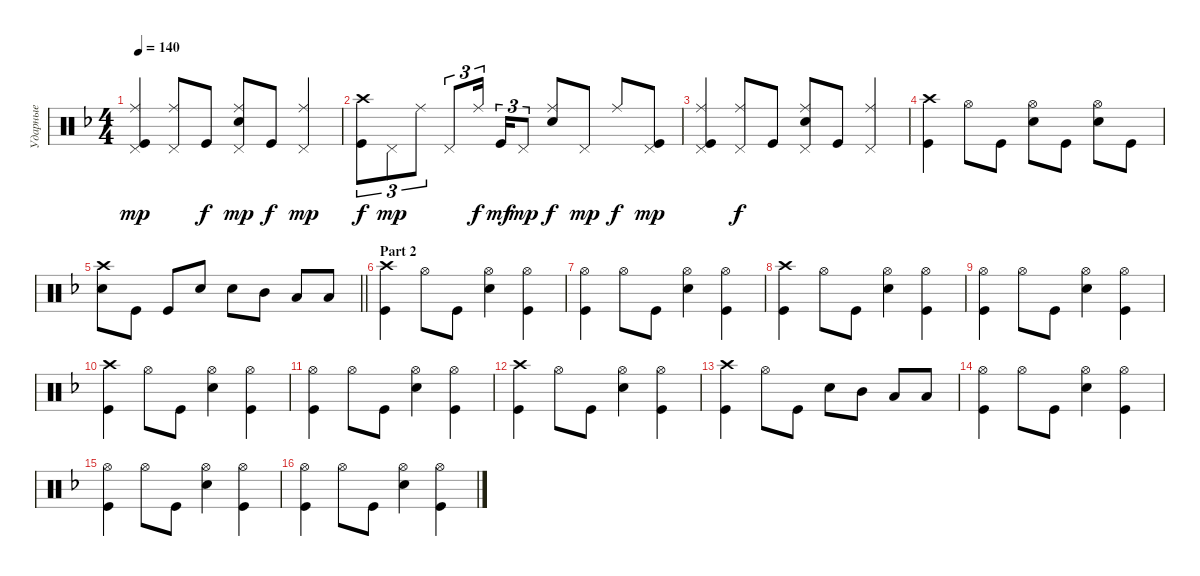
\track ("Ударные" "Ударные") {instrument percussion}
\staff {score}
\articulation defaults
\ts (4 4)
\tempo 140
\clef neutral
\ks dminor
("Pedal Hi-Hat (hit)" "Ride (middle)" "Kick (hit)").4{dy mp} ("Ride (middle)" "Pedal Hi-Hat (hit)").8 "Kick (hit)".8{dy f} ("Snare (hit) 2" "Ride (middle)" "Pedal Hi-Hat (hit)").8{dy mp} "Kick (hit)".8{dy f} ("Ride (middle)" "Pedal Hi-Hat (hit)").4{dy mp} |
("Kick (hit)" "Crash high (hit)").8{tu (3 2) dy f} "Pedal Hi-Hat (hit)".8{tu (3 2) dy mp} "Ride (middle)".8{tu (3 2)} "Pedal Hi-Hat (hit)".8{tu (3 2)} "Ride (middle)".16{tu (3 2) dy f beam splitsecondary} "Kick (hit)".16{tu (3 2) dy mf} "Pedal Hi-Hat (hit)".8{tu (3 2) dy mp} ("Ride (middle)" "Snare (hit) 2").8{dy f} "Pedal Hi-Hat (hit)".8{dy mp} "Ride (middle)".8{dy f} ("Kick (hit)" "Pedal Hi-Hat (hit)").8{dy mp} |
("Pedal Hi-Hat (hit)" "Ride (middle)" "Kick (hit)").4 ("Ride (middle)" "Pedal Hi-Hat (hit)").8{dy f} "Kick (hit)".8 ("Snare (hit) 2" "Ride (middle)" "Pedal Hi-Hat (hit)").8 "Kick (hit)".8 ("Ride (middle)" "Pedal Hi-Hat (hit)").4 |
("Kick (hit)" "Crash high (hit)").4 "Hi-Hat (open)".8 "Kick (hit)".8 ("Hi-Hat (open)" "Snare (hit) 2").8 "Kick (hit)".8 ("Snare (hit) 2" "Hi-Hat (open)").8 "Kick (hit)".8 |
\barLineRight lightlight
("Snare (hit) 2" "Crash high (hit)").8 "Kick (hit)".8 "Kick (hit)".8 "Snare (hit) 2".8 "Snare (hit) 2".8 "Mid Tom (hit)".8 "Low Tom (hit)".8 "Low Tom (hit)".8 |
\section ("" "Part 2")
("Kick (hit)" "Crash high (hit)").4 "Hi-Hat (open)".8 "Kick (hit)".8 ("Snare (hit) 2" "Hi-Hat (open)").4 ("Kick (hit)" "Hi-Hat (open)").4 |
("Kick (hit)" "Hi-Hat (open)").4 "Hi-Hat (open)".8 "Kick (hit)".8 ("Snare (hit) 2" "Hi-Hat (open)").4 ("Kick (hit)" "Hi-Hat (open)").4 |
("Kick (hit)" "Crash high (hit)").4 "Hi-Hat (open)".8 "Kick (hit)".8 ("Snare (hit) 2" "Hi-Hat (open)").4 ("Kick (hit)" "Hi-Hat (open)").4 |
("Kick (hit)" "Hi-Hat (open)").4 "Hi-Hat (open)".8 "Kick (hit)".8 ("Snare (hit) 2" "Hi-Hat (open)").4 ("Kick (hit)" "Hi-Hat (open)").4 |
("Kick (hit)" "Crash high (hit)").4 "Hi-Hat (open)".8 "Kick (hit)".8 ("Snare (hit) 2" "Hi-Hat (open)").4 ("Kick (hit)" "Hi-Hat (open)").4 |
("Kick (hit)" "Hi-Hat (open)").4 "Hi-Hat (open)".8 "Kick (hit)".8 ("Snare (hit) 2" "Hi-Hat (open)").4 ("Kick (hit)" "Hi-Hat (open)").4 |
("Kick (hit)" "Crash high (hit)").4 "Hi-Hat (open)".8 "Kick (hit)".8 ("Snare (hit) 2" "Hi-Hat (open)").4 ("Kick (hit)" "Hi-Hat (open)").4 |
("Kick (hit)" "Crash high (hit)").4 "Hi-Hat (open)".8 "Kick (hit)".8 "Snare (hit) 2".8 "Mid Tom (hit)".8 "Low Tom (hit)".8 "Low Tom (hit)".8 |
("Kick (hit)" "Hi-Hat (open)").4 "Hi-Hat (open)".8 "Kick (hit)".8 ("Snare (hit) 2" "Hi-Hat (open)").4 ("Kick (hit)" "Hi-Hat (open)").4 |
("Kick (hit)" "Hi-Hat (open)").4 "Hi-Hat (open)".8 "Kick (hit)".8 ("Snare (hit) 2" "Hi-Hat (open)").4 ("Kick (hit)" "Hi-Hat (open)").4 |
("Kick (hit)" "Hi-Hat (open)").4 "Hi-Hat (open)".8 "Kick (hit)".8 ("Snare (hit) 2" "Hi-Hat (open)").4 ("Kick (hit)" "Hi-Hat (open)").4
